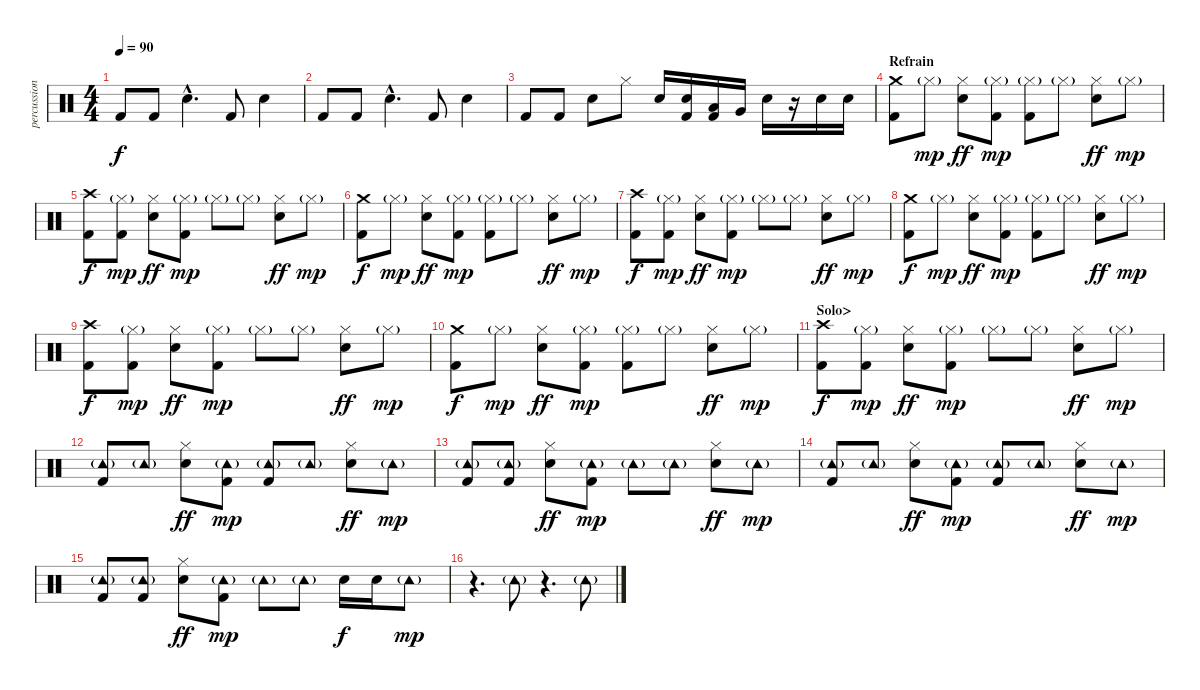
\track ("percussion" "percussion") {instrument percussion}
\staff {score}
\articulation defaults
\ts (4 4)
\tempo 90
\clef neutral
\ks c "Kick (hit) 2".8{dy f} "Kick (hit) 2".8 "Electric Snare (hit)"{hac}.4{d} "Kick (hit) 2".8 "Electric Snare (hit)".4
|
"Kick (hit) 2".8 "Kick (hit) 2".8 "Electric Snare (hit)"{hac}.4{d} "Kick (hit) 2".8 "Electric Snare (hit)".4 |
"Kick (hit) 2".8 "Kick (hit) 2".8 "Electric Snare (hit)".8 "Hi-Hat (closed)".8 "Electric Snare (hit)".16 ("Electric Snare (hit)" "Kick (hit) 2").16 ("Low Tom (hit)" "Kick (hit) 2").16 "Very Low Tom (hit)".16 "Electric Snare (hit)".16 r.16 "Electric Snare (hit)".16 "Electric Snare (hit)".16 |
\section ("" "Refrain")
("Crash medium (hit)" "Kick (hit) 2").8 "Hi-Hat (closed)"{g}.8{dy mp} ("Hi-Hat (closed)" "Electric Snare (hit)").8{dy ff} ("Hi-Hat (closed)"{g} "Kick (hit) 2").8{dy mp} ("Hi-Hat (closed)"{g} "Kick (hit) 2").8 "Hi-Hat (closed)"{g}.8 ("Hi-Hat (closed)" "Electric Snare (hit)").8{dy ff} "Hi-Hat (closed)"{g}.8{dy mp} |
("Crash high (hit)" "Kick (hit) 2").8{dy f} ("Hi-Hat (closed)"{g} "Kick (hit) 2").8{dy mp} ("Hi-Hat (closed)" "Electric Snare (hit)").8{dy ff} ("Hi-Hat (closed)"{g} "Kick (hit) 2").8{dy mp} "Hi-Hat (closed)"{g}.8 "Hi-Hat (closed)"{g}.8 ("Hi-Hat (closed)" "Electric Snare (hit)").8{dy ff} "Hi-Hat (closed)"{g}.8{dy mp} |
("Crash medium (hit)" "Kick (hit) 2").8{dy f} "Hi-Hat (closed)"{g}.8{dy mp} ("Hi-Hat (closed)" "Electric Snare (hit)").8{dy ff} ("Hi-Hat (closed)"{g} "Kick (hit) 2").8{dy mp} ("Hi-Hat (closed)"{g} "Kick (hit) 2").8 "Hi-Hat (closed)"{g}.8 ("Hi-Hat (closed)" "Electric Snare (hit)").8{dy ff} "Hi-Hat (closed)"{g}.8{dy mp} |
("Crash high (hit)" "Kick (hit) 2").8{dy f} ("Hi-Hat (closed)"{g} "Kick (hit) 2").8{dy mp} ("Hi-Hat (closed)" "Electric Snare (hit)").8{dy ff} ("Hi-Hat (closed)"{g} "Kick (hit) 2").8{dy mp} "Hi-Hat (closed)"{g}.8 "Hi-Hat (closed)"{g}.8 ("Hi-Hat (closed)" "Electric Snare (hit)").8{dy ff} "Hi-Hat (closed)"{g}.8{dy mp} |
("Crash medium (hit)" "Kick (hit) 2").8{dy f} "Hi-Hat (closed)"{g}.8{dy mp} ("Hi-Hat (closed)" "Electric Snare (hit)").8{dy ff} ("Hi-Hat (closed)"{g} "Kick (hit) 2").8{dy mp} ("Hi-Hat (closed)"{g} "Kick (hit) 2").8 "Hi-Hat (closed)"{g}.8 ("Hi-Hat (closed)" "Electric Snare (hit)").8{dy ff} "Hi-Hat (closed)"{g}.8{dy mp} |
("Crash high (hit)" "Kick (hit) 2").8{dy f} ("Hi-Hat (closed)"{g} "Kick (hit) 2").8{dy mp} ("Hi-Hat (closed)" "Electric Snare (hit)").8{dy ff} ("Hi-Hat (closed)"{g} "Kick (hit) 2").8{dy mp} "Hi-Hat (closed)"{g}.8 "Hi-Hat (closed)"{g}.8 ("Hi-Hat (closed)" "Electric Snare (hit)").8{dy ff} "Hi-Hat (closed)"{g}.8{dy mp} |
("Crash medium (hit)" "Kick (hit) 2").8{dy f} "Hi-Hat (closed)"{g}.8{dy mp} ("Hi-Hat (closed)" "Electric Snare (hit)").8{dy ff} ("Hi-Hat (closed)"{g} "Kick (hit) 2").8{dy mp} ("Hi-Hat (closed)"{g} "Kick (hit) 2").8 "Hi-Hat (closed)"{g}.8 ("Hi-Hat (closed)" "Electric Snare (hit)").8{dy ff} "Hi-Hat (closed)"{g}.8{dy mp} |
\section ("" "Solo>")
("Crash high (hit)" "Kick (hit) 2").8{dy f} ("Hi-Hat (closed)"{g} "Kick (hit) 2").8{dy mp} ("Hi-Hat (closed)" "Electric Snare (hit)").8{dy ff} ("Hi-Hat (closed)"{g} "Kick (hit) 2").8{dy mp} "Hi-Hat (closed)"{g}.8 "Hi-Hat (closed)"{g}.8 ("Hi-Hat (closed)" "Electric Snare (hit)").8{dy ff} "Hi-Hat (closed)"{g}.8{dy mp} |
("Tambourine (hit)"{g} "Kick (hit) 2").8 "Tambourine (hit)"{g}.8 ("Hi-Hat (closed)" "Electric Snare (hit)").8{dy ff} ("Tambourine (hit)"{g} "Kick (hit) 2").8{dy mp} ("Tambourine (hit)"{g} "Kick (hit) 2").8 "Tambourine (hit)"{g}.8 ("Hi-Hat (closed)" "Electric Snare (hit)").8{dy ff} "Tambourine (hit)"{g}.8{dy mp} |
("Tambourine (hit)"{g} "Kick (hit) 2").8 ("Tambourine (hit)"{g} "Kick (hit) 2").8 ("Hi-Hat (closed)" "Electric Snare (hit)").8{dy ff} ("Tambourine (hit)"{g} "Kick (hit) 2").8{dy mp} "Tambourine (hit)"{g}.8 "Tambourine (hit)"{g}.8 ("Hi-Hat (closed)" "Electric Snare (hit)").8{dy ff} "Tambourine (hit)"{g}.8{dy mp} |
("Tambourine (hit)"{g} "Kick (hit) 2").8 "Tambourine (hit)"{g}.8 ("Hi-Hat (closed)" "Electric Snare (hit)").8{dy ff} ("Tambourine (hit)"{g} "Kick (hit) 2").8{dy mp} ("Tambourine (hit)"{g} "Kick (hit) 2").8 "Tambourine (hit)"{g}.8 ("Hi-Hat (closed)" "Electric Snare (hit)").8{dy ff} "Tambourine (hit)"{g}.8{dy mp} |
("Tambourine (hit)"{g} "Kick (hit) 2").8 ("Tambourine (hit)"{g} "Kick (hit) 2").8 ("Hi-Hat (closed)" "Electric Snare (hit)").8{dy ff} ("Tambourine (hit)"{g} "Kick (hit) 2").8{dy mp} "Tambourine (hit)"{g}.8 "Tambourine (hit)"{g}.8 "Electric Snare (hit)".16{dy f} "Electric Snare (hit)".16 "Tambourine (hit)"{g}.8{dy mp} |
r.4{d} "Tambourine (hit)"{g}.8 r.4{d} "Tambourine (hit)"{g}.8
